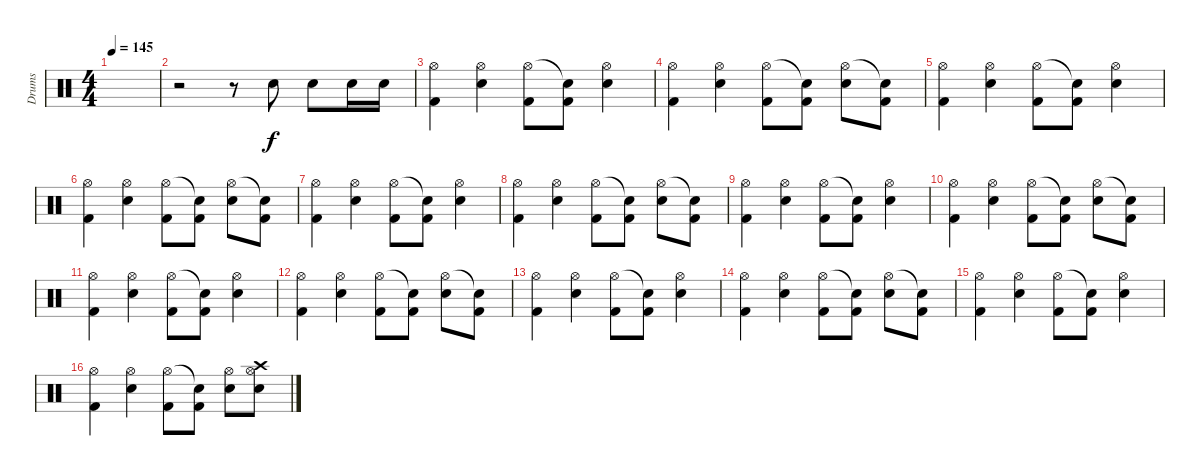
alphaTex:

\track ("Drums" "Drums") {instrument percussion}
\staff {score}
\articulation defaults
\ts (4 4)
\tempo 145
\clef neutral
\ks c
|
r.2 r.8 "Electric Snare (hit)".8 "Electric Snare (hit)".8 "Electric Snare (hit)".16 "Electric Snare (hit)".16 |
("Hi-Hat (open)" "Kick (hit) 2").4 ("Hi-Hat (open)" "Electric Snare (hit)").4 ("Hi-Hat (open)" "Kick (hit) 2").8 ("Snare (hit)"{t} "Kick (hit) 2").8 ("Hi-Hat (open)" "Electric Snare (hit)").4 |
("Hi-Hat (open)" "Kick (hit) 2").4 ("Hi-Hat (open)" "Electric Snare (hit)").4 ("Hi-Hat (open)" "Kick (hit) 2").8 ("Snare (hit)"{t} "Kick (hit) 2").8 ("Hi-Hat (open)" "Electric Snare (hit)").8 ("Snare (hit)"{t} "Kick (hit) 2").8 |
("Hi-Hat (open)" "Kick (hit) 2").4 ("Hi-Hat (open)" "Electric Snare (hit)").4 ("Hi-Hat (open)" "Kick (hit) 2").8 ("Snare (hit)"{t} "Kick (hit) 2").8 ("Hi-Hat (open)" "Electric Snare (hit)").4 |
("Hi-Hat (open)" "Kick (hit) 2").4 ("Hi-Hat (open)" "Electric Snare (hit)").4 ("Hi-Hat (open)" "Kick (hit) 2").8 ("Snare (hit)"{t} "Kick (hit) 2").8 ("Hi-Hat (open)" "Electric Snare (hit)").8 ("Snare (hit)"{t} "Kick (hit) 2").8 |
("Hi-Hat (open)" "Kick (hit) 2").4 ("Hi-Hat (open)" "Electric Snare (hit)").4 ("Hi-Hat (open)" "Kick (hit) 2").8 ("Snare (hit)"{t} "Kick (hit) 2").8 ("Hi-Hat (open)" "Electric Snare (hit)").4 |
("Hi-Hat (open)" "Kick (hit) 2").4 ("Hi-Hat (open)" "Electric Snare (hit)").4 ("Hi-Hat (open)" "Kick (hit) 2").8 ("Snare (hit)"{t} "Kick (hit) 2").8 ("Hi-Hat (open)" "Electric Snare (hit)").8 ("Snare (hit)"{t} "Kick (hit) 2").8 |
("Hi-Hat (open)" "Kick (hit) 2").4 ("Hi-Hat (open)" "Electric Snare (hit)").4 ("Hi-Hat (open)" "Kick (hit) 2").8 ("Snare (hit)"{t} "Kick (hit) 2").8 ("Hi-Hat (open)" "Electric Snare (hit)").4 |
("Hi-Hat (open)" "Kick (hit) 2").4 ("Hi-Hat (open)" "Electric Snare (hit)").4 ("Hi-Hat (open)" "Kick (hit) 2").8 ("Snare (hit)"{t} "Kick (hit) 2").8 ("Hi-Hat (open)" "Electric Snare (hit)").8 ("Snare (hit)"{t} "Kick (hit) 2").8 |
("Hi-Hat (open)" "Kick (hit) 2").4 ("Hi-Hat (open)" "Electric Snare (hit)").4 ("Hi-Hat (open)" "Kick (hit) 2").8 ("Snare (hit)"{t} "Kick (hit) 2").8 ("Hi-Hat (open)" "Electric Snare (hit)").4 |
("Hi-Hat (open)" "Kick (hit) 2").4 ("Hi-Hat (open)" "Electric Snare (hit)").4 ("Hi-Hat (open)" "Kick (hit) 2").8 ("Snare (hit)"{t} "Kick (hit) 2").8 ("Hi-Hat (open)" "Electric Snare (hit)").8 ("Snare (hit)"{t} "Kick (hit) 2").8 |
("Hi-Hat (open)" "Kick (hit) 2").4 ("Hi-Hat (open)" "Electric Snare (hit)").4 ("Hi-Hat (open)" "Kick (hit) 2").8 ("Snare (hit)"{t} "Kick (hit) 2").8 ("Hi-Hat (open)" "Electric Snare (hit)").4 |
("Hi-Hat (open)" "Kick (hit) 2").4 ("Hi-Hat (open)" "Electric Snare (hit)").4 ("Hi-Hat (open)" "Kick (hit) 2").8 ("Snare (hit)"{t} "Kick (hit) 2").8 ("Hi-Hat (open)" "Electric Snare (hit)").8 ("Snare (hit)"{t} "Kick (hit) 2").8 |
("Hi-Hat (open)" "Kick (hit) 2").4 ("Hi-Hat (open)" "Electric Snare (hit)").4 ("Hi-Hat (open)" "Kick (hit) 2").8 ("Snare (hit)"{t} "Kick (hit) 2").8 ("Hi-Hat (open)" "Electric Snare (hit)").4 |
("Hi-Hat (open)" "Kick (hit) 2").4 ("Hi-Hat (open)" "Electric Snare (hit)").4 ("Hi-Hat (open)" "Kick (hit) 2").8 ("Snare (hit)"{t} "Kick (hit) 2").8 ("Hi-Hat (open)" "Electric Snare (hit)").8 ("Hi-Hat (open)" "Electric Snare (hit)" "Crash high (hit)").8
